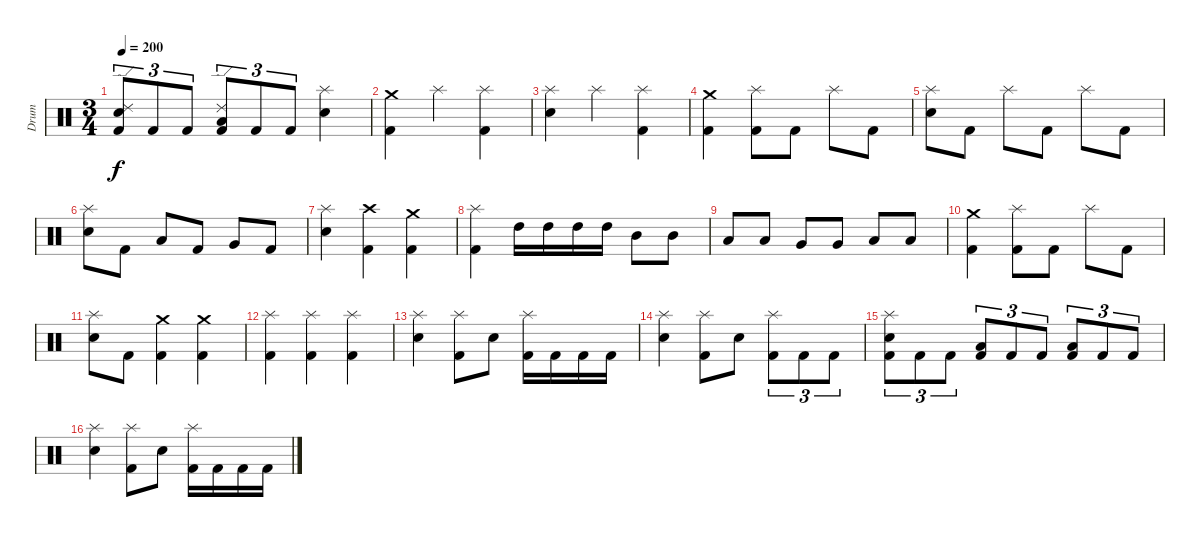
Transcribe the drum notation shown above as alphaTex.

\track ("Drum" "Drum") {instrument percussion}
\staff {score}
\articulation defaults
\ts (3 4)
\tempo 200
\clef neutral
\ks c
("Ride (edge) 2" "Electric Snare (hit)" "Kick (hit) 2").8{tu (3 2) dy f} "Kick (hit) 2".8{tu (3 2)} "Kick (hit) 2".8{tu (3 2)} ("Ride (edge) 2" "Low Tom (hit)" "Kick (hit) 2").8{tu (3 2)} "Kick (hit) 2".8{tu (3 2)} "Kick (hit) 2".8{tu (3 2)} ("Splash (hit)" "Electric Snare (hit)").4 |
("Crash medium (hit)" "Kick (hit) 2").4 "Splash (hit)".4 ("Splash (hit)" "Kick (hit) 2").4 |
("Splash (hit)" "Electric Snare (hit)").4 "Splash (hit)".4 ("Splash (hit)" "Kick (hit) 2").4 |
("Crash medium (hit)" "Kick (hit) 2").4 ("Splash (hit)" "Kick (hit) 2").8 "Kick (hit) 2".8 "Splash (hit)".8 "Kick (hit) 2".8 |
("Splash (hit)" "Electric Snare (hit)").8 "Kick (hit) 2".8 "Splash (hit)".8 "Kick (hit) 2".8 "Splash (hit)".8 "Kick (hit) 2".8 |
("Splash (hit)" "Electric Snare (hit)").8 "Kick (hit) 2".8 "Low Tom (hit)".8 "Kick (hit) 2".8 "Very Low Tom (hit)".8 "Kick (hit) 2".8 |
("Splash (hit)" "Electric Snare (hit)").4 ("Crash high (hit)" "Kick (hit) 2").4 ("Crash medium (hit)" "Kick (hit) 2").4 |
("Splash (hit)" "Kick (hit) 2").4 "High Tom (hit)".16 "High Tom (hit)".16 "High Tom (hit)".16 "High Tom (hit)".16 "Mid Tom (hit)".8 "Mid Tom (hit)".8 |
"Low Tom (hit)".8 "Low Tom (hit)".8 "Very Low Tom (hit)".8 "Very Low Tom (hit)".8 "Low Floor Tom (hit)".8 "Low Floor Tom (hit)".8 |
("Crash medium (hit)" "Kick (hit) 2").4 ("Splash (hit)" "Kick (hit) 2").8 "Kick (hit) 2".8 "Splash (hit)".8 "Kick (hit) 2".8 |
("Splash (hit)" "Electric Snare (hit)").8 "Kick (hit) 2".8 ("Crash medium (hit)" "Kick (hit) 2").4 ("Crash medium (hit)" "Kick (hit) 2").4 |
("Splash (hit)" "Kick (hit) 2").4 ("Splash (hit)" "Kick (hit) 2").4 ("Splash (hit)" "Kick (hit) 2").4 |
("Splash (hit)" "Electric Snare (hit)").4 ("Splash (hit)" "Kick (hit) 2").8 "Electric Snare (hit)".8 ("Splash (hit)" "Kick (hit) 2").16 "Kick (hit) 2".16 "Kick (hit) 2".16 "Kick (hit) 2".16 |
("Splash (hit)" "Electric Snare (hit)").4 ("Splash (hit)" "Kick (hit) 2").8 "Electric Snare (hit)".8 ("Splash (hit)" "Kick (hit) 2").8{tu (3 2)} "Kick (hit) 2".8{tu (3 2)} "Kick (hit) 2".8{tu (3 2)} |
("Splash (hit)" "Electric Snare (hit)" "Kick (hit) 2").8{tu (3 2)} "Kick (hit) 2".8{tu (3 2)} "Kick (hit) 2".8{tu (3 2)} ("Low Tom (hit)" "Kick (hit) 2").8{tu (3 2)} "Kick (hit) 2".8{tu (3 2)} "Kick (hit) 2".8{tu (3 2)} ("Low Tom (hit)" "Kick (hit) 2").8{tu (3 2)} "Kick (hit) 2".8{tu (3 2)} "Kick (hit) 2".8{tu (3 2)} |
("Splash (hit)" "Electric Snare (hit)").4 ("Splash (hit)" "Kick (hit) 2").8 "Electric Snare (hit)".8 ("Splash (hit)" "Kick (hit) 2").16 "Kick (hit) 2".16 "Kick (hit) 2".16 "Kick (hit) 2".16
